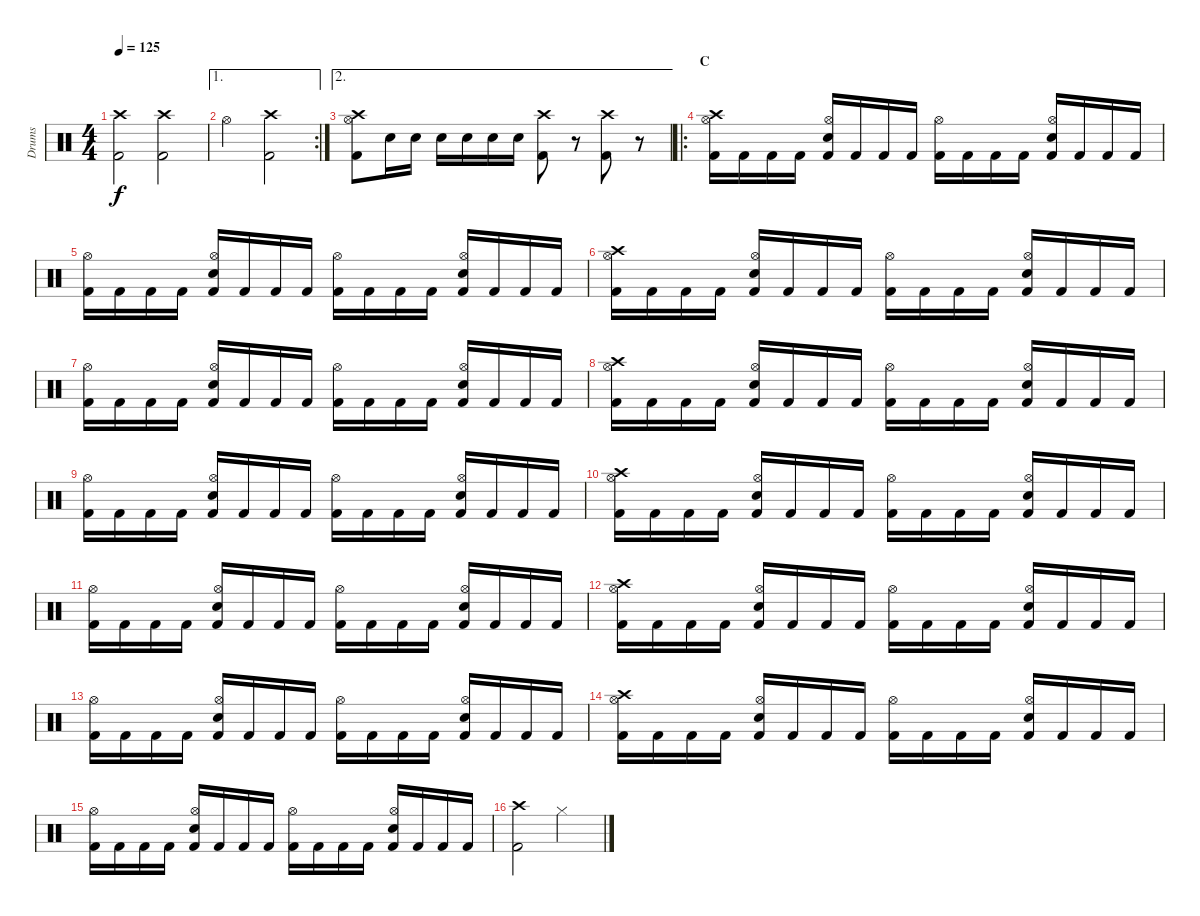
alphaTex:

\track ("Drums" "Drums") {instrument percussion}
\staff {score}
\articulation defaults
\ts (4 4)
\tempo 125
\clef neutral
\ks c
("Kick (hit) 2" "Crash high (hit)").2{dy f} ("Kick (hit) 2" "Crash high (hit)").2 |
\ae 1
\rc 2 "Hi-Hat (open)".2
("Kick (hit) 2" "Crash high (hit)").2 |
\ae 2
("Kick (hit) 2" "Hi-Hat (open)" "Crash high (hit)").8 "Electric Snare (hit)".16 "Electric Snare (hit)".16 "Electric Snare (hit)".16 "Electric Snare (hit)".16 "Electric Snare (hit)".16 "Electric Snare (hit)".16 ("Kick (hit) 2" "Crash high (hit)").8 r.8 ("Kick (hit) 2" "Crash high (hit)").8 r.8 |
\ro
\section ("" "C")
("Kick (hit) 2" "Hi-Hat (open)" "Crash high (hit)").16 "Kick (hit) 2".16 "Kick (hit) 2".16 "Kick (hit) 2".16 ("Kick (hit) 2" "Hi-Hat (open)" "Electric Snare (hit)").16 "Kick (hit) 2".16 "Kick (hit) 2".16 "Kick (hit) 2".16 ("Kick (hit) 2" "Hi-Hat (open)").16 "Kick (hit) 2".16 "Kick (hit) 2".16 "Kick (hit) 2".16 ("Kick (hit) 2" "Hi-Hat (open)" "Electric Snare (hit)").16 "Kick (hit) 2".16 "Kick (hit) 2".16 "Kick (hit) 2".16 |
("Kick (hit) 2" "Hi-Hat (open)").16 "Kick (hit) 2".16 "Kick (hit) 2".16 "Kick (hit) 2".16 ("Kick (hit) 2" "Hi-Hat (open)" "Electric Snare (hit)").16 "Kick (hit) 2".16 "Kick (hit) 2".16 "Kick (hit) 2".16 ("Kick (hit) 2" "Hi-Hat (open)").16 "Kick (hit) 2".16 "Kick (hit) 2".16 "Kick (hit) 2".16 ("Kick (hit) 2" "Hi-Hat (open)" "Electric Snare (hit)").16 "Kick (hit) 2".16 "Kick (hit) 2".16 "Kick (hit) 2".16 |
("Kick (hit) 2" "Hi-Hat (open)" "Crash high (hit)").16 "Kick (hit) 2".16 "Kick (hit) 2".16 "Kick (hit) 2".16 ("Kick (hit) 2" "Hi-Hat (open)" "Electric Snare (hit)").16 "Kick (hit) 2".16 "Kick (hit) 2".16 "Kick (hit) 2".16 ("Kick (hit) 2" "Hi-Hat (open)").16 "Kick (hit) 2".16 "Kick (hit) 2".16 "Kick (hit) 2".16 ("Kick (hit) 2" "Hi-Hat (open)" "Electric Snare (hit)").16 "Kick (hit) 2".16 "Kick (hit) 2".16 "Kick (hit) 2".16 |
("Kick (hit) 2" "Hi-Hat (open)").16 "Kick (hit) 2".16 "Kick (hit) 2".16 "Kick (hit) 2".16 ("Kick (hit) 2" "Hi-Hat (open)" "Electric Snare (hit)").16 "Kick (hit) 2".16 "Kick (hit) 2".16 "Kick (hit) 2".16 ("Kick (hit) 2" "Hi-Hat (open)").16 "Kick (hit) 2".16 "Kick (hit) 2".16 "Kick (hit) 2".16 ("Kick (hit) 2" "Hi-Hat (open)" "Electric Snare (hit)").16 "Kick (hit) 2".16 "Kick (hit) 2".16 "Kick (hit) 2".16 |
("Kick (hit) 2" "Hi-Hat (open)" "Crash high (hit)").16 "Kick (hit) 2".16 "Kick (hit) 2".16 "Kick (hit) 2".16 ("Kick (hit) 2" "Hi-Hat (open)" "Electric Snare (hit)").16 "Kick (hit) 2".16 "Kick (hit) 2".16 "Kick (hit) 2".16 ("Kick (hit) 2" "Hi-Hat (open)").16 "Kick (hit) 2".16 "Kick (hit) 2".16 "Kick (hit) 2".16 ("Kick (hit) 2" "Hi-Hat (open)" "Electric Snare (hit)").16 "Kick (hit) 2".16 "Kick (hit) 2".16 "Kick (hit) 2".16 |
("Kick (hit) 2" "Hi-Hat (open)").16 "Kick (hit) 2".16 "Kick (hit) 2".16 "Kick (hit) 2".16 ("Kick (hit) 2" "Hi-Hat (open)" "Electric Snare (hit)").16 "Kick (hit) 2".16 "Kick (hit) 2".16 "Kick (hit) 2".16 ("Kick (hit) 2" "Hi-Hat (open)").16 "Kick (hit) 2".16 "Kick (hit) 2".16 "Kick (hit) 2".16 ("Kick (hit) 2" "Hi-Hat (open)" "Electric Snare (hit)").16 "Kick (hit) 2".16 "Kick (hit) 2".16 "Kick (hit) 2".16 |
("Kick (hit) 2" "Hi-Hat (open)" "Crash high (hit)").16 "Kick (hit) 2".16 "Kick (hit) 2".16 "Kick (hit) 2".16 ("Kick (hit) 2" "Hi-Hat (open)" "Electric Snare (hit)").16 "Kick (hit) 2".16 "Kick (hit) 2".16 "Kick (hit) 2".16 ("Kick (hit) 2" "Hi-Hat (open)").16 "Kick (hit) 2".16 "Kick (hit) 2".16 "Kick (hit) 2".16 ("Kick (hit) 2" "Hi-Hat (open)" "Electric Snare (hit)").16 "Kick (hit) 2".16 "Kick (hit) 2".16 "Kick (hit) 2".16 |
("Kick (hit) 2" "Hi-Hat (open)").16 "Kick (hit) 2".16 "Kick (hit) 2".16 "Kick (hit) 2".16 ("Kick (hit) 2" "Hi-Hat (open)" "Electric Snare (hit)").16 "Kick (hit) 2".16 "Kick (hit) 2".16 "Kick (hit) 2".16 ("Kick (hit) 2" "Hi-Hat (open)").16 "Kick (hit) 2".16 "Kick (hit) 2".16 "Kick (hit) 2".16 ("Kick (hit) 2" "Hi-Hat (open)" "Electric Snare (hit)").16 "Kick (hit) 2".16 "Kick (hit) 2".16 "Kick (hit) 2".16 |
("Kick (hit) 2" "Hi-Hat (open)" "Crash high (hit)").16 "Kick (hit) 2".16 "Kick (hit) 2".16 "Kick (hit) 2".16 ("Kick (hit) 2" "Hi-Hat (open)" "Electric Snare (hit)").16 "Kick (hit) 2".16 "Kick (hit) 2".16 "Kick (hit) 2".16 ("Kick (hit) 2" "Hi-Hat (open)").16 "Kick (hit) 2".16 "Kick (hit) 2".16 "Kick (hit) 2".16 ("Kick (hit) 2" "Hi-Hat (open)" "Electric Snare (hit)").16 "Kick (hit) 2".16 "Kick (hit) 2".16 "Kick (hit) 2".16 |
("Kick (hit) 2" "Hi-Hat (open)").16 "Kick (hit) 2".16 "Kick (hit) 2".16 "Kick (hit) 2".16 ("Kick (hit) 2" "Hi-Hat (open)" "Electric Snare (hit)").16 "Kick (hit) 2".16 "Kick (hit) 2".16 "Kick (hit) 2".16 ("Kick (hit) 2" "Hi-Hat (open)").16 "Kick (hit) 2".16 "Kick (hit) 2".16 "Kick (hit) 2".16 ("Kick (hit) 2" "Hi-Hat (open)" "Electric Snare (hit)").16 "Kick (hit) 2".16 "Kick (hit) 2".16 "Kick (hit) 2".16 |
("Kick (hit) 2" "Hi-Hat (open)" "Crash high (hit)").16 "Kick (hit) 2".16 "Kick (hit) 2".16 "Kick (hit) 2".16 ("Kick (hit) 2" "Hi-Hat (open)" "Electric Snare (hit)").16 "Kick (hit) 2".16 "Kick (hit) 2".16 "Kick (hit) 2".16 ("Kick (hit) 2" "Hi-Hat (open)").16 "Kick (hit) 2".16 "Kick (hit) 2".16 "Kick (hit) 2".16 ("Kick (hit) 2" "Hi-Hat (open)" "Electric Snare (hit)").16 "Kick (hit) 2".16 "Kick (hit) 2".16 "Kick (hit) 2".16 |
("Kick (hit) 2" "Hi-Hat (open)").16 "Kick (hit) 2".16 "Kick (hit) 2".16 "Kick (hit) 2".16 ("Kick (hit) 2" "Hi-Hat (open)" "Electric Snare (hit)").16 "Kick (hit) 2".16 "Kick (hit) 2".16 "Kick (hit) 2".16 ("Kick (hit) 2" "Hi-Hat (open)").16 "Kick (hit) 2".16 "Kick (hit) 2".16 "Kick (hit) 2".16 ("Kick (hit) 2" "Hi-Hat (open)" "Electric Snare (hit)").16 "Kick (hit) 2".16 "Kick (hit) 2".16 "Kick (hit) 2".16 |
("Kick (hit) 2" "Crash high (hit)").2 "Hi-Hat (closed)".2
